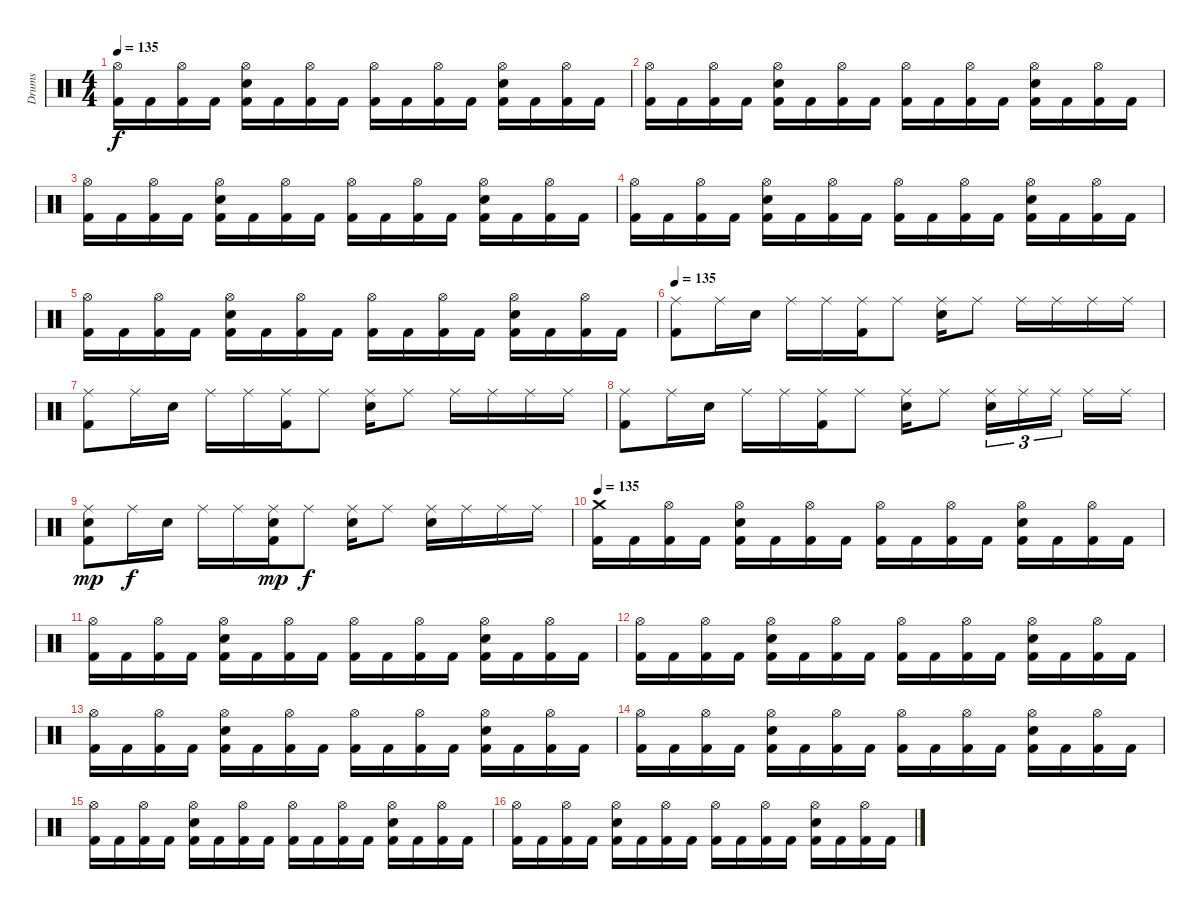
\track ("Drums" "Drums") {instrument percussion}
\staff {score}
\articulation defaults
\ts (4 4)
\tempo 135
\clef neutral
\ks c
("Hi-Hat (open)" "Kick (hit) 2").16{dy f} "Kick (hit) 2".16 ("Hi-Hat (open)" "Kick (hit) 2").16 "Kick (hit) 2".16 ("Hi-Hat (open)" "Electric Snare (hit)" "Kick (hit) 2").16 "Kick (hit) 2".16 ("Hi-Hat (open)" "Kick (hit) 2").16 "Kick (hit) 2".16 ("Hi-Hat (open)" "Kick (hit) 2").16 "Kick (hit) 2".16 ("Hi-Hat (open)" "Kick (hit) 2").16 "Kick (hit) 2".16 ("Hi-Hat (open)" "Electric Snare (hit)" "Kick (hit) 2").16 "Kick (hit) 2".16 ("Hi-Hat (open)" "Kick (hit) 2").16 "Kick (hit) 2".16 |
("Hi-Hat (open)" "Kick (hit) 2").16 "Kick (hit) 2".16 ("Hi-Hat (open)" "Kick (hit) 2").16 "Kick (hit) 2".16 ("Hi-Hat (open)" "Electric Snare (hit)" "Kick (hit) 2").16 "Kick (hit) 2".16 ("Hi-Hat (open)" "Kick (hit) 2").16 "Kick (hit) 2".16 ("Hi-Hat (open)" "Kick (hit) 2").16 "Kick (hit) 2".16 ("Hi-Hat (open)" "Kick (hit) 2").16 "Kick (hit) 2".16 ("Hi-Hat (open)" "Electric Snare (hit)" "Kick (hit) 2").16 "Kick (hit) 2".16 ("Hi-Hat (open)" "Kick (hit) 2").16 "Kick (hit) 2".16 |
("Hi-Hat (open)" "Kick (hit) 2").16 "Kick (hit) 2".16 ("Hi-Hat (open)" "Kick (hit) 2").16 "Kick (hit) 2".16 ("Hi-Hat (open)" "Electric Snare (hit)" "Kick (hit) 2").16 "Kick (hit) 2".16 ("Hi-Hat (open)" "Kick (hit) 2").16 "Kick (hit) 2".16 ("Hi-Hat (open)" "Kick (hit) 2").16 "Kick (hit) 2".16 ("Hi-Hat (open)" "Kick (hit) 2").16 "Kick (hit) 2".16 ("Hi-Hat (open)" "Electric Snare (hit)" "Kick (hit) 2").16 "Kick (hit) 2".16 ("Hi-Hat (open)" "Kick (hit) 2").16 "Kick (hit) 2".16 |
("Hi-Hat (open)" "Kick (hit) 2").16 "Kick (hit) 2".16 ("Hi-Hat (open)" "Kick (hit) 2").16 "Kick (hit) 2".16 ("Hi-Hat (open)" "Electric Snare (hit)" "Kick (hit) 2").16 "Kick (hit) 2".16 ("Hi-Hat (open)" "Kick (hit) 2").16 "Kick (hit) 2".16 ("Hi-Hat (open)" "Kick (hit) 2").16 "Kick (hit) 2".16 ("Hi-Hat (open)" "Kick (hit) 2").16 "Kick (hit) 2".16 ("Hi-Hat (open)" "Electric Snare (hit)" "Kick (hit) 2").16 "Kick (hit) 2".16 ("Hi-Hat (open)" "Kick (hit) 2").16 "Kick (hit) 2".16 |
("Hi-Hat (open)" "Kick (hit) 2").16 "Kick (hit) 2".16 ("Hi-Hat (open)" "Kick (hit) 2").16 "Kick (hit) 2".16 ("Hi-Hat (open)" "Electric Snare (hit)" "Kick (hit) 2").16 "Kick (hit) 2".16 ("Hi-Hat (open)" "Kick (hit) 2").16 "Kick (hit) 2".16 ("Hi-Hat (open)" "Kick (hit) 2").16 "Kick (hit) 2".16 ("Hi-Hat (open)" "Kick (hit) 2").16 "Kick (hit) 2".16 ("Hi-Hat (open)" "Electric Snare (hit)" "Kick (hit) 2").16 "Kick (hit) 2".16 ("Hi-Hat (open)" "Kick (hit) 2").16 "Kick (hit) 2".16 |
\tempo 135
("Ride (middle)" "Kick (hit) 2").8 "Ride (middle)".16 "Electric Snare (hit)".16 "Ride (middle)".16 "Ride (middle)".16 ("Ride (middle)" "Kick (hit) 2").16 "Ride (middle)".8 ("Ride (middle)" "Electric Snare (hit)").16 "Ride (middle)".8 "Ride (middle)".16 "Ride (middle)".16 "Ride (middle)".16 "Ride (middle)".16 |
("Ride (middle)" "Kick (hit) 2").8 "Ride (middle)".16 "Electric Snare (hit)".16 "Ride (middle)".16 "Ride (middle)".16 ("Ride (middle)" "Kick (hit) 2").16 "Ride (middle)".8 ("Ride (middle)" "Electric Snare (hit)").16 "Ride (middle)".8 "Ride (middle)".16 "Ride (middle)".16 "Ride (middle)".16 "Ride (middle)".16 |
("Ride (middle)" "Kick (hit) 2").8 "Ride (middle)".16 "Electric Snare (hit)".16 "Ride (middle)".16 "Ride (middle)".16 ("Ride (middle)" "Kick (hit) 2").16 "Ride (middle)".8 ("Ride (middle)" "Electric Snare (hit)").16 "Ride (middle)".8 ("Ride (middle)" "Electric Snare (hit)").16{tu (3 2)} "Ride (middle)".16{tu (3 2)} "Ride (middle)".16{tu (3 2)} "Ride (middle)".16 "Ride (middle)".16 |
("Ride (middle)" "Electric Snare (hit)" "Kick (hit) 2").8{dy mp} "Ride (middle)".16{dy f} "Electric Snare (hit)".16 "Ride (middle)".16 "Ride (middle)".16 ("Ride (middle)" "Electric Snare (hit)" "Kick (hit) 2").16{dy mp} "Ride (middle)".8{dy f} ("Ride (middle)" "Electric Snare (hit)").16 "Ride (middle)".8 ("Ride (middle)" "Electric Snare (hit)").16 "Ride (middle)".16 "Ride (middle)".16 "Ride (middle)".16 |
\tempo 135
("Crash medium (hit)" "Kick (hit) 2").16 "Kick (hit) 2".16 ("Hi-Hat (open)" "Kick (hit) 2").16 "Kick (hit) 2".16 ("Hi-Hat (open)" "Electric Snare (hit)" "Kick (hit) 2").16 "Kick (hit) 2".16 ("Hi-Hat (open)" "Kick (hit) 2").16 "Kick (hit) 2".16 ("Hi-Hat (open)" "Kick (hit) 2").16 "Kick (hit) 2".16 ("Hi-Hat (open)" "Kick (hit) 2").16 "Kick (hit) 2".16 ("Hi-Hat (open)" "Electric Snare (hit)" "Kick (hit) 2").16 "Kick (hit) 2".16 ("Hi-Hat (open)" "Kick (hit) 2").16 "Kick (hit) 2".16 |
("Hi-Hat (open)" "Kick (hit) 2").16 "Kick (hit) 2".16 ("Hi-Hat (open)" "Kick (hit) 2").16 "Kick (hit) 2".16 ("Hi-Hat (open)" "Electric Snare (hit)" "Kick (hit) 2").16 "Kick (hit) 2".16 ("Hi-Hat (open)" "Kick (hit) 2").16 "Kick (hit) 2".16 ("Hi-Hat (open)" "Kick (hit) 2").16 "Kick (hit) 2".16 ("Hi-Hat (open)" "Kick (hit) 2").16 "Kick (hit) 2".16 ("Hi-Hat (open)" "Electric Snare (hit)" "Kick (hit) 2").16 "Kick (hit) 2".16 ("Hi-Hat (open)" "Kick (hit) 2").16 "Kick (hit) 2".16 |
("Hi-Hat (open)" "Kick (hit) 2").16 "Kick (hit) 2".16 ("Hi-Hat (open)" "Kick (hit) 2").16 "Kick (hit) 2".16 ("Hi-Hat (open)" "Electric Snare (hit)" "Kick (hit) 2").16 "Kick (hit) 2".16 ("Hi-Hat (open)" "Kick (hit) 2").16 "Kick (hit) 2".16 ("Hi-Hat (open)" "Kick (hit) 2").16 "Kick (hit) 2".16 ("Hi-Hat (open)" "Kick (hit) 2").16 "Kick (hit) 2".16 ("Hi-Hat (open)" "Electric Snare (hit)" "Kick (hit) 2").16 "Kick (hit) 2".16 ("Hi-Hat (open)" "Kick (hit) 2").16 "Kick (hit) 2".16 |
("Hi-Hat (open)" "Kick (hit) 2").16 "Kick (hit) 2".16 ("Hi-Hat (open)" "Kick (hit) 2").16 "Kick (hit) 2".16 ("Hi-Hat (open)" "Electric Snare (hit)" "Kick (hit) 2").16 "Kick (hit) 2".16 ("Hi-Hat (open)" "Kick (hit) 2").16 "Kick (hit) 2".16 ("Hi-Hat (open)" "Kick (hit) 2").16 "Kick (hit) 2".16 ("Hi-Hat (open)" "Kick (hit) 2").16 "Kick (hit) 2".16 ("Hi-Hat (open)" "Electric Snare (hit)" "Kick (hit) 2").16 "Kick (hit) 2".16 ("Hi-Hat (open)" "Kick (hit) 2").16 "Kick (hit) 2".16 |
("Hi-Hat (open)" "Kick (hit) 2").16 "Kick (hit) 2".16 ("Hi-Hat (open)" "Kick (hit) 2").16 "Kick (hit) 2".16 ("Hi-Hat (open)" "Electric Snare (hit)" "Kick (hit) 2").16 "Kick (hit) 2".16 ("Hi-Hat (open)" "Kick (hit) 2").16 "Kick (hit) 2".16 ("Hi-Hat (open)" "Kick (hit) 2").16 "Kick (hit) 2".16 ("Hi-Hat (open)" "Kick (hit) 2").16 "Kick (hit) 2".16 ("Hi-Hat (open)" "Electric Snare (hit)" "Kick (hit) 2").16 "Kick (hit) 2".16 ("Hi-Hat (open)" "Kick (hit) 2").16 "Kick (hit) 2".16 |
("Hi-Hat (open)" "Kick (hit) 2").16 "Kick (hit) 2".16 ("Hi-Hat (open)" "Kick (hit) 2").16 "Kick (hit) 2".16 ("Hi-Hat (open)" "Electric Snare (hit)" "Kick (hit) 2").16 "Kick (hit) 2".16 ("Hi-Hat (open)" "Kick (hit) 2").16 "Kick (hit) 2".16 ("Hi-Hat (open)" "Kick (hit) 2").16 "Kick (hit) 2".16 ("Hi-Hat (open)" "Kick (hit) 2").16 "Kick (hit) 2".16 ("Hi-Hat (open)" "Electric Snare (hit)" "Kick (hit) 2").16 "Kick (hit) 2".16 ("Hi-Hat (open)" "Kick (hit) 2").16 "Kick (hit) 2".16 |
("Hi-Hat (open)" "Kick (hit) 2").16 "Kick (hit) 2".16 ("Hi-Hat (open)" "Kick (hit) 2").16 "Kick (hit) 2".16 ("Hi-Hat (open)" "Electric Snare (hit)" "Kick (hit) 2").16 "Kick (hit) 2".16 ("Hi-Hat (open)" "Kick (hit) 2").16 "Kick (hit) 2".16 ("Hi-Hat (open)" "Kick (hit) 2").16 "Kick (hit) 2".16 ("Hi-Hat (open)" "Kick (hit) 2").16 "Kick (hit) 2".16 ("Hi-Hat (open)" "Electric Snare (hit)" "Kick (hit) 2").16 "Kick (hit) 2".16 ("Hi-Hat (open)" "Kick (hit) 2").16 "Kick (hit) 2".16
